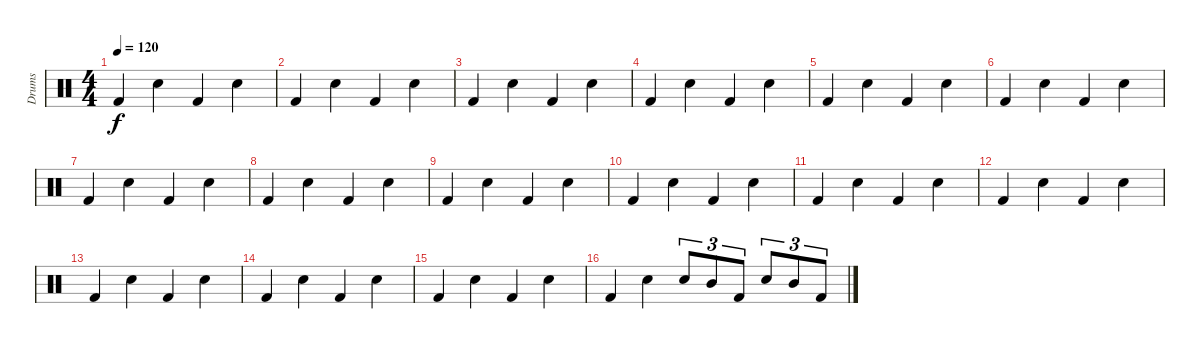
\track ("Drums" "Drums") {instrument percussion}
\staff {score}
\articulation defaults
\ts (4 4)
\tempo 120
\clef neutral
\ks c "Kick (hit) 2".4{dy f} "Electric Snare (hit)".4 "Kick (hit) 2".4 "Electric Snare (hit)".4
|
"Kick (hit) 2".4 "Electric Snare (hit)".4 "Kick (hit) 2".4 "Electric Snare (hit)".4 |
"Kick (hit) 2".4 "Electric Snare (hit)".4 "Kick (hit) 2".4 "Electric Snare (hit)".4 |
"Kick (hit) 2".4 "Electric Snare (hit)".4 "Kick (hit) 2".4 "Electric Snare (hit)".4 |
"Kick (hit) 2".4 "Electric Snare (hit)".4 "Kick (hit) 2".4 "Electric Snare (hit)".4 |
"Kick (hit) 2".4 "Electric Snare (hit)".4 "Kick (hit) 2".4 "Electric Snare (hit)".4 |
"Kick (hit) 2".4 "Electric Snare (hit)".4 "Kick (hit) 2".4 "Electric Snare (hit)".4 |
"Kick (hit) 2".4 "Electric Snare (hit)".4 "Kick (hit) 2".4 "Electric Snare (hit)".4 |
"Kick (hit) 2".4 "Electric Snare (hit)".4 "Kick (hit) 2".4 "Electric Snare (hit)".4 |
"Kick (hit) 2".4 "Electric Snare (hit)".4 "Kick (hit) 2".4 "Electric Snare (hit)".4 |
"Kick (hit) 2".4 "Electric Snare (hit)".4 "Kick (hit) 2".4 "Electric Snare (hit)".4 |
"Kick (hit) 2".4 "Electric Snare (hit)".4 "Kick (hit) 2".4 "Electric Snare (hit)".4 |
"Kick (hit) 2".4 "Electric Snare (hit)".4 "Kick (hit) 2".4 "Electric Snare (hit)".4 |
"Kick (hit) 2".4 "Electric Snare (hit)".4 "Kick (hit) 2".4 "Electric Snare (hit)".4 |
"Kick (hit) 2".4 "Electric Snare (hit)".4 "Kick (hit) 2".4 "Electric Snare (hit)".4 |
"Kick (hit) 2".4 "Electric Snare (hit)".4 "Electric Snare (hit)".8{tu (3 2)} "Mid Tom (hit)".8{tu (3 2)} "Kick (hit) 2".8{tu (3 2)} "Electric Snare (hit)".8{tu (3 2)} "Mid Tom (hit)".8{tu (3 2)} "Kick (hit) 2".8{tu (3 2)}
